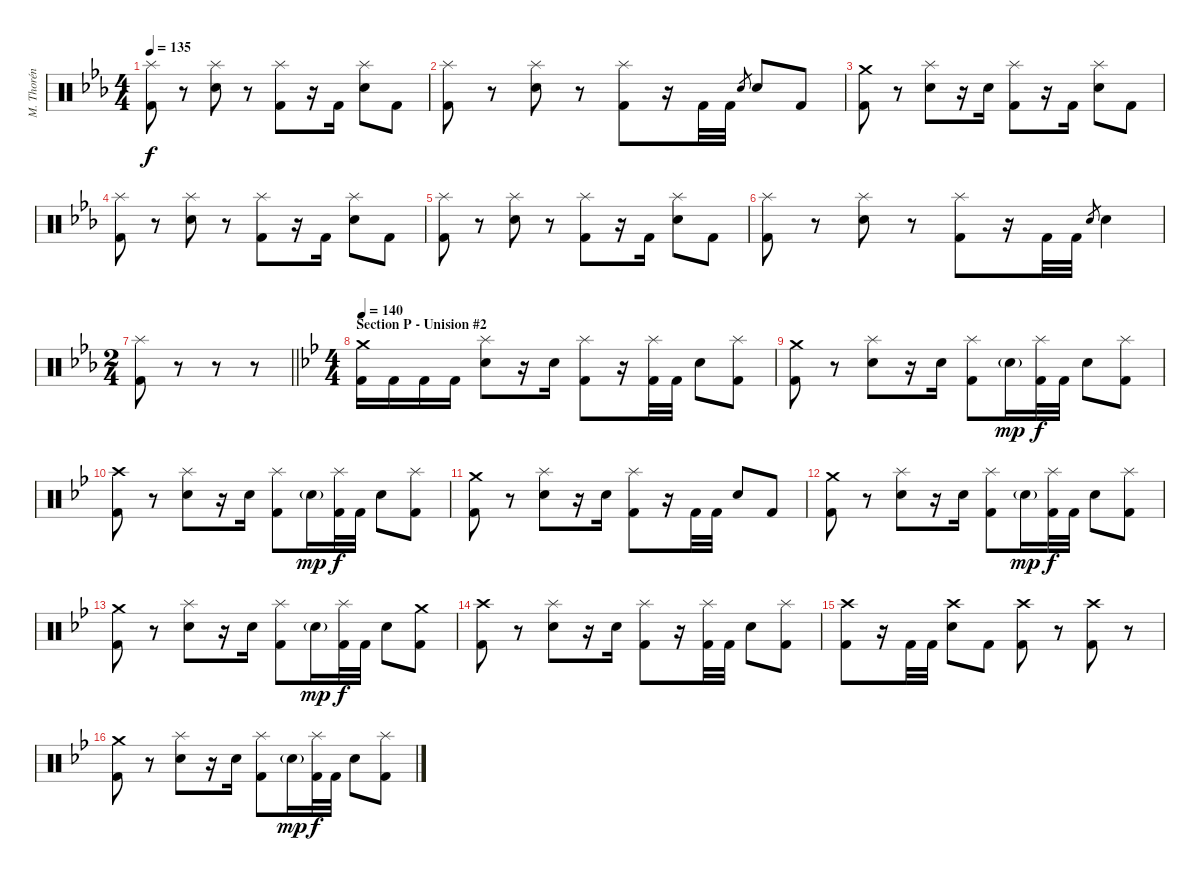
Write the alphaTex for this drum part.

\track ("M. Thorén (Drums)" "M. Thorén ") {instrument percussion}
\staff {score}
\articulation defaults
\ts (4 4)
\tempo 135
\clef neutral
\ks cminor
("Splash (hit)" "Kick (hit) 2").8{dy f} r.8 ("Splash (hit)" "Electric Snare (hit)").8 r.8 ("Splash (hit)" "Kick (hit) 2").8 r.16 "Kick (hit) 2".16 ("Splash (hit)" "Electric Snare (hit)").8 "Kick (hit) 2".8 |
("Splash (hit)" "Kick (hit) 2").8 r.8 ("Splash (hit)" "Electric Snare (hit)").8 r.8 ("Splash (hit)" "Kick (hit) 2").8 r.16 "Kick (hit) 2".32 "Kick (hit) 2".32 "Electric Snare (hit)".8{gr} "Electric Snare (hit)".8 "Kick (hit) 2".8 |
("Crash medium (hit)" "Kick (hit) 2").8 r.8 ("Splash (hit)" "Electric Snare (hit)").8 r.16 "Electric Snare (hit)".16 ("Splash (hit)" "Kick (hit) 2").8 r.16 "Kick (hit) 2".16 ("Splash (hit)" "Electric Snare (hit)").8 "Kick (hit) 2".8 |
("Splash (hit)" "Kick (hit) 2").8 r.8 ("Splash (hit)" "Electric Snare (hit)").8 r.8 ("Splash (hit)" "Kick (hit) 2").8 r.16 "Kick (hit) 2".16 ("Splash (hit)" "Electric Snare (hit)").8 "Kick (hit) 2".8 |
("Splash (hit)" "Kick (hit) 2").8 r.8 ("Splash (hit)" "Electric Snare (hit)").8 r.8 ("Splash (hit)" "Kick (hit) 2").8 r.16 "Kick (hit) 2".16 ("Splash (hit)" "Electric Snare (hit)").8 "Kick (hit) 2".8 |
("Splash (hit)" "Kick (hit) 2").8 r.8 ("Splash (hit)" "Electric Snare (hit)").8 r.8 ("Splash (hit)" "Kick (hit) 2").8 r.16 "Kick (hit) 2".32 "Kick (hit) 2".32 "Electric Snare (hit)".8{gr} "Electric Snare (hit)".4 |
\ts (2 4)
\barLineRight lightlight
("Splash (hit)" "Kick (hit) 2").8 r.8{volume 0} r.8 r.8 |
\ts (4 4)
\section ("" "Section P - Unision #2")
\tempo 140
\ks gminor
("Crash medium (hit)" "Kick (hit) 2").16{volume 12} "Kick (hit) 2".16 "Kick (hit) 2".16 "Kick (hit) 2".16 ("Splash (hit)" "Electric Snare (hit)").8 r.16 "Electric Snare (hit)".16 ("Splash (hit)" "Kick (hit) 2").8 r.16 ("Splash (hit)" "Kick (hit) 2").32 "Kick (hit) 2".32 "Electric Snare (hit)".8 ("Splash (hit)" "Kick (hit) 2").8 |
("Crash medium (hit)" "Kick (hit) 2").8 r.8 ("Splash (hit)" "Electric Snare (hit)").8 r.16 "Electric Snare (hit)".16 ("Splash (hit)" "Kick (hit) 2").8 "Electric Snare (hit)"{g}.16{dy mp} ("Splash (hit)" "Kick (hit) 2").32{dy f} "Kick (hit) 2".32 "Electric Snare (hit)".8 ("Splash (hit)" "Kick (hit) 2").8 |
("Crash high (hit)" "Kick (hit) 2").8 r.8 ("Splash (hit)" "Electric Snare (hit)").8 r.16 "Electric Snare (hit)".16 ("Splash (hit)" "Kick (hit) 2").8 "Electric Snare (hit)"{g}.16{dy mp} ("Splash (hit)" "Kick (hit) 2").32{dy f} "Kick (hit) 2".32 "Electric Snare (hit)".8 ("Splash (hit)" "Kick (hit) 2").8 |
("Crash medium (hit)" "Kick (hit) 2").8 r.8 ("Splash (hit)" "Electric Snare (hit)").8 r.16 "Electric Snare (hit)".16 ("Splash (hit)" "Kick (hit) 2").8 r.16 "Kick (hit) 2".32 "Kick (hit) 2".32 "Electric Snare (hit)".8 "Kick (hit) 2".8 |
("Crash medium (hit)" "Kick (hit) 2").8 r.8 ("Splash (hit)" "Electric Snare (hit)").8 r.16 "Electric Snare (hit)".16 ("Splash (hit)" "Kick (hit) 2").8 "Electric Snare (hit)"{g}.16{dy mp} ("Splash (hit)" "Kick (hit) 2").32{dy f} "Kick (hit) 2".32 "Electric Snare (hit)".8 ("Splash (hit)" "Kick (hit) 2").8 |
("Crash medium (hit)" "Kick (hit) 2").8 r.8 ("Splash (hit)" "Electric Snare (hit)").8 r.16 "Electric Snare (hit)".16 ("Splash (hit)" "Kick (hit) 2").8 "Electric Snare (hit)"{g}.16{dy mp} ("Splash (hit)" "Kick (hit) 2").32{dy f} "Kick (hit) 2".32 "Electric Snare (hit)".8 ("Crash medium (hit)" "Kick (hit) 2").8 |
("Crash high (hit)" "Kick (hit) 2").8 r.8 ("Splash (hit)" "Electric Snare (hit)").8 r.16 "Electric Snare (hit)".16 ("Splash (hit)" "Kick (hit) 2").8 r.16 ("Splash (hit)" "Kick (hit) 2").32 "Kick (hit) 2".32 "Electric Snare (hit)".8 ("Splash (hit)" "Kick (hit) 2").8 |
("Crash high (hit)" "Kick (hit) 2").8 r.16 "Kick (hit) 2".32 "Kick (hit) 2".32 ("Crash high (hit)" "Electric Snare (hit)").8 "Kick (hit) 2".8 ("Crash high (hit)" "Kick (hit) 2").8 r.8 ("Crash high (hit)" "Kick (hit) 2").8 r.8 |
("Crash medium (hit)" "Kick (hit) 2").8 r.8 ("Splash (hit)" "Electric Snare (hit)").8 r.16 "Electric Snare (hit)".16 ("Splash (hit)" "Kick (hit) 2").8 "Electric Snare (hit)"{g}.16{dy mp} ("Splash (hit)" "Kick (hit) 2").32{dy f} "Kick (hit) 2".32 "Electric Snare (hit)".8 ("Splash (hit)" "Kick (hit) 2").8
